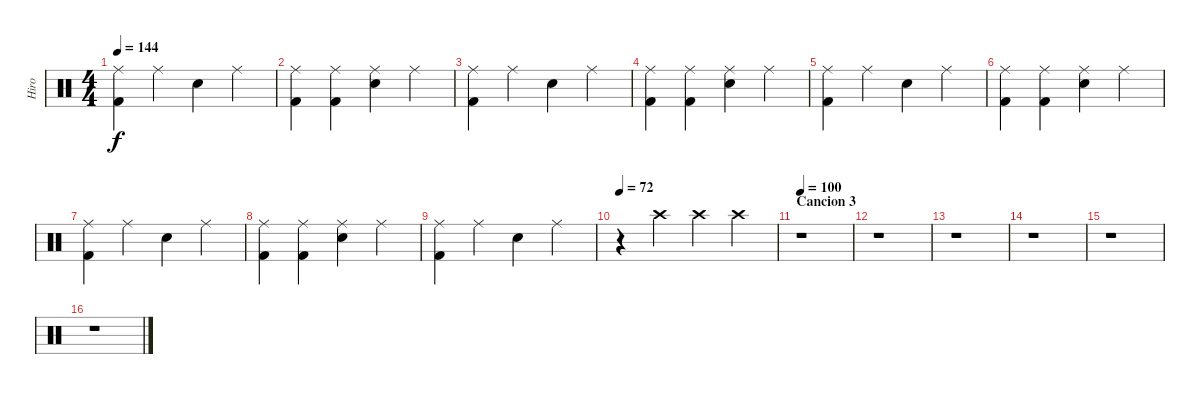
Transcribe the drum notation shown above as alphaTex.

\track ("Hiro" "Hiro") {instrument percussion}
\staff {score}
\articulation defaults
\ts (4 4)
\tempo 144
\clef neutral
\ks c
("Ride (middle)" "Kick (hit) 2").4{dy f} "Ride (middle)".4 "Snare (hit) 2".4 "Ride (middle)".4 |
("Kick (hit) 2" "Ride (middle)").4 ("Ride (middle)" "Kick (hit) 2").4 ("Ride (middle)" "Snare (hit) 2").4 "Ride (middle)".4 |
("Ride (middle)" "Kick (hit) 2").4 "Ride (middle)".4 "Snare (hit) 2".4 "Ride (middle)".4 |
("Ride (middle)" "Kick (hit) 2").4 ("Ride (middle)" "Kick (hit) 2").4 ("Ride (middle)" "Snare (hit) 2").4 "Ride (middle)".4 |
("Ride (middle)" "Kick (hit) 2").4 "Ride (middle)".4 "Snare (hit) 2".4 "Ride (middle)".4 |
("Ride (middle)" "Kick (hit) 2").4 ("Ride (middle)" "Kick (hit) 2").4 ("Ride (middle)" "Snare (hit) 2").4 "Ride (middle)".4 |
("Ride (middle)" "Kick (hit) 2").4 "Ride (middle)".4 "Snare (hit) 2".4 "Ride (middle)".4 |
("Ride (middle)" "Kick (hit) 2").4 ("Ride (middle)" "Kick (hit) 2").4 ("Ride (middle)" "Snare (hit) 2").4 "Ride (middle)".4 |
("Kick (hit) 2" "Ride (middle)").4 "Ride (middle)".4 "Snare (hit) 2".4 "Ride (middle)".4 |
\tempo 72
r.4 "Crash high (hit)".4 "Crash high (hit)".4 "Crash high (hit)".4 |
\section ("" "Cancion 3")
\tempo 100
r.1 |
r.1 |
r.1 |
r.1 |
r.1 |
r.1
